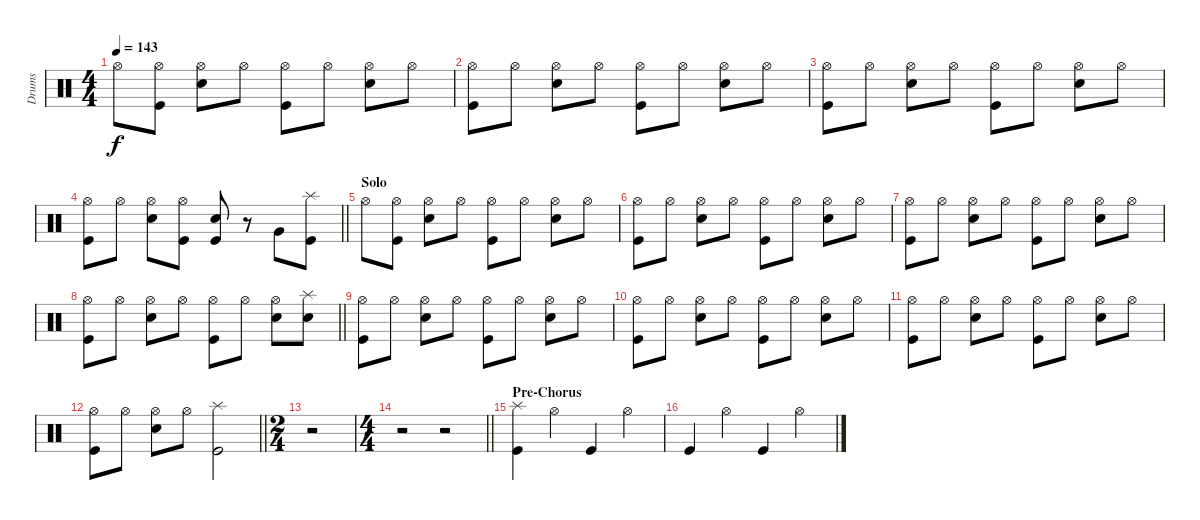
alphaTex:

\track ("Drums" "Drums") {instrument percussion}
\staff
\articulation defaults
\ts (4 4)
\tempo 143
\clef neutral
\ks c "Hi-Hat (open)".8{dy f}
("Hi-Hat (open)" "Kick (hit)").8 ("Hi-Hat (open)" "Snare (hit) 2").8 "Hi-Hat (open)".8 ("Hi-Hat (open)" "Kick (hit)").8 "Hi-Hat (open)".8 ("Hi-Hat (open)" "Snare (hit) 2").8 "Hi-Hat (open)".8 |
("Hi-Hat (open)" "Kick (hit)").8 "Hi-Hat (open)".8 ("Hi-Hat (open)" "Snare (hit) 2").8 "Hi-Hat (open)".8 ("Hi-Hat (open)" "Kick (hit)").8 "Hi-Hat (open)".8 ("Hi-Hat (open)" "Snare (hit) 2").8 "Hi-Hat (open)".8 |
("Hi-Hat (open)" "Kick (hit)").8 "Hi-Hat (open)".8 ("Hi-Hat (open)" "Snare (hit) 2").8 "Hi-Hat (open)".8 ("Hi-Hat (open)" "Kick (hit)").8 "Hi-Hat (open)".8 ("Hi-Hat (open)" "Snare (hit) 2").8 "Hi-Hat (open)".8 |
\barLineRight lightlight
("Hi-Hat (open)" "Kick (hit)").8 "Hi-Hat (open)".8 ("Hi-Hat (open)" "Snare (hit) 2").8 ("Hi-Hat (open)" "Kick (hit)").8 ("Snare (hit) 2" "Kick (hit)").8 r.8 "Very Low Tom (hit)".8 ("Splash (hit)" "Kick (hit)").8 |
\section ("" "Solo")
"Hi-Hat (open)".8 ("Hi-Hat (open)" "Kick (hit)").8 ("Hi-Hat (open)" "Snare (hit) 2").8 "Hi-Hat (open)".8 ("Hi-Hat (open)" "Kick (hit)").8 "Hi-Hat (open)".8 ("Hi-Hat (open)" "Snare (hit) 2").8 "Hi-Hat (open)".8 |
("Hi-Hat (open)" "Kick (hit)").8 "Hi-Hat (open)".8 ("Hi-Hat (open)" "Snare (hit) 2").8 "Hi-Hat (open)".8 ("Hi-Hat (open)" "Kick (hit)").8 "Hi-Hat (open)".8 ("Hi-Hat (open)" "Snare (hit) 2").8 "Hi-Hat (open)".8 |
("Hi-Hat (open)" "Kick (hit)").8 "Hi-Hat (open)".8 ("Hi-Hat (open)" "Snare (hit) 2").8 "Hi-Hat (open)".8 ("Hi-Hat (open)" "Kick (hit)").8 "Hi-Hat (open)".8 ("Hi-Hat (open)" "Snare (hit) 2").8 "Hi-Hat (open)".8 |
\barLineRight lightlight
("Hi-Hat (open)" "Kick (hit)").8 "Hi-Hat (open)".8 ("Hi-Hat (open)" "Snare (hit) 2").8 "Hi-Hat (open)".8 ("Hi-Hat (open)" "Kick (hit)").8 "Hi-Hat (open)".8 ("Hi-Hat (open)" "Snare (hit) 2").8 ("Splash (hit)" "Snare (hit) 2").8 |
("Hi-Hat (open)" "Kick (hit)").8 "Hi-Hat (open)".8 ("Hi-Hat (open)" "Snare (hit) 2").8 "Hi-Hat (open)".8 ("Hi-Hat (open)" "Kick (hit)").8 "Hi-Hat (open)".8 ("Hi-Hat (open)" "Snare (hit) 2").8 "Hi-Hat (open)".8 |
("Hi-Hat (open)" "Kick (hit)").8 "Hi-Hat (open)".8 ("Hi-Hat (open)" "Snare (hit) 2").8 "Hi-Hat (open)".8 ("Hi-Hat (open)" "Kick (hit)").8 "Hi-Hat (open)".8 ("Hi-Hat (open)" "Snare (hit) 2").8 "Hi-Hat (open)".8 |
("Hi-Hat (open)" "Kick (hit)").8 "Hi-Hat (open)".8 ("Hi-Hat (open)" "Snare (hit) 2").8 "Hi-Hat (open)".8 ("Hi-Hat (open)" "Kick (hit)").8 "Hi-Hat (open)".8 ("Hi-Hat (open)" "Snare (hit) 2").8 "Hi-Hat (open)".8 |
\barLineRight lightlight
("Hi-Hat (open)" "Kick (hit)").8 "Hi-Hat (open)".8 ("Hi-Hat (open)" "Snare (hit) 2").8 "Hi-Hat (open)".8 ("Splash (hit)" "Kick (hit)").2 |
\ts (2 4)
r.2 |
\ts (4 4)
\barLineRight lightlight
r.2 r.2 |
\section ("" "Pre-Chorus")
("Splash (hit)" "Kick (hit)").4 "Hi-Hat (open)".4 "Kick (hit)".4 "Hi-Hat (open)".4 |
"Kick (hit)".4 "Hi-Hat (open)".4 "Kick (hit)".4 "Hi-Hat (open)".4
